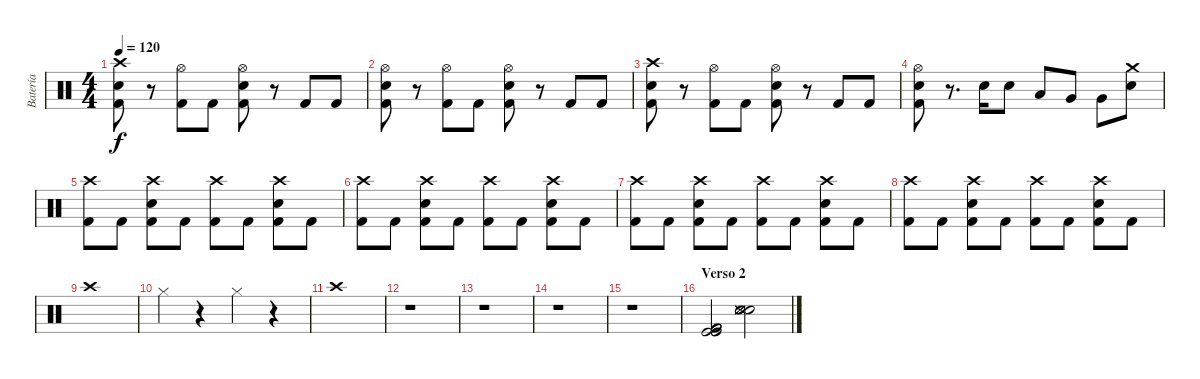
\track ("Batería" "Batería") {instrument percussion}
\staff {score}
\articulation defaults
\ts (4 4)
\tempo 120
\clef neutral
\ks c
("Crash high (hit)" "Electric Snare (hit)" "Kick (hit) 2").8{dy f} r.8 ("Hi-Hat (open)" "Kick (hit) 2").8 "Kick (hit) 2".8 ("Electric Snare (hit)" "Hi-Hat (open)" "Kick (hit) 2").8 r.8 "Kick (hit) 2".8 "Kick (hit) 2".8 |
("Hi-Hat (open)" "Electric Snare (hit)" "Kick (hit) 2").8 r.8 ("Hi-Hat (open)" "Kick (hit) 2").8 "Kick (hit) 2".8 ("Electric Snare (hit)" "Hi-Hat (open)" "Kick (hit) 2").8 r.8 "Kick (hit) 2".8 "Kick (hit) 2".8 |
("Crash high (hit)" "Electric Snare (hit)" "Kick (hit) 2").8 r.8 ("Hi-Hat (open)" "Kick (hit) 2").8 "Kick (hit) 2".8 ("Electric Snare (hit)" "Hi-Hat (open)" "Kick (hit) 2").8 r.8 "Kick (hit) 2".8 "Kick (hit) 2".8 |
("Hi-Hat (open)" "Electric Snare (hit)" "Kick (hit) 2").8 r.8{d} "Electric Snare (hit)".16 "Electric Snare (hit)".8 "Low Tom (hit)".8 "Very Low Tom (hit)".8 "Very Low Tom (hit)".8 ("Crash medium (hit)" "Electric Snare (hit)").8 |
("Kick (hit) 2" "Crash high (hit)").8 "Kick (hit) 2".8 ("Kick (hit) 2" "Electric Snare (hit)" "Crash high (hit)").8 "Kick (hit) 2".8 ("Kick (hit) 2" "Crash high (hit)").8 "Kick (hit) 2".8 ("Kick (hit) 2" "Electric Snare (hit)" "Crash high (hit)").8 "Kick (hit) 2".8 |
("Kick (hit) 2" "Crash high (hit)").8 "Kick (hit) 2".8 ("Kick (hit) 2" "Electric Snare (hit)" "Crash high (hit)").8 "Kick (hit) 2".8 ("Kick (hit) 2" "Crash high (hit)").8 "Kick (hit) 2".8 ("Kick (hit) 2" "Electric Snare (hit)" "Crash high (hit)").8 "Kick (hit) 2".8 |
("Kick (hit) 2" "Crash high (hit)").8 "Kick (hit) 2".8 ("Kick (hit) 2" "Electric Snare (hit)" "Crash high (hit)").8 "Kick (hit) 2".8 ("Kick (hit) 2" "Crash high (hit)").8 "Kick (hit) 2".8 ("Kick (hit) 2" "Electric Snare (hit)" "Crash high (hit)").8 "Kick (hit) 2".8 |
("Kick (hit) 2" "Crash high (hit)").8 "Kick (hit) 2".8 ("Kick (hit) 2" "Electric Snare (hit)" "Crash high (hit)").8 "Kick (hit) 2".8 ("Kick (hit) 2" "Crash high (hit)").8 "Kick (hit) 2".8 ("Kick (hit) 2" "Electric Snare (hit)" "Crash high (hit)").8 "Kick (hit) 2".8 |
"Crash high (hit)".1 |
"Hi-Hat (closed)".4 r.4 "Hi-Hat (closed)".4 r.4 |
"Crash high (hit)".1 |
r.1 |
r.1 |
r.1 |
r.1 |
\section ("" "Verso 2")
("Kick (hit) 2" "Kick (hit)" "Kick (hit) 2" "Kick (hit)" "Kick (hit) 2" "Kick (hit)").2 ("Electric Snare (hit)" "Snare (side stick) 3" "Snare (side stick) 3" "Snare (hit) 2" "Snare (side stick) 3" "Snare (hit) 2").2
